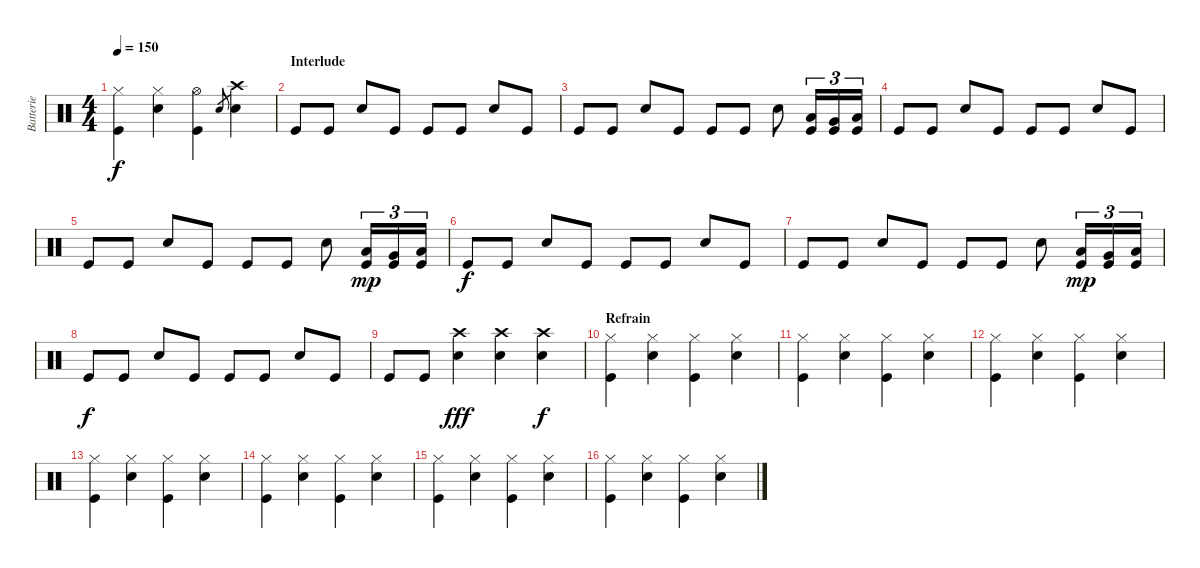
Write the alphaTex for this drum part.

\track ("Batterie" "Batterie") {instrument percussion}
\staff {score}
\articulation defaults
\ts (4 4)
\tempo 150
\clef neutral
\ks c
("Hi-Hat (closed)" "Kick (hit)").4{dy f} ("Hi-Hat (closed)" "Electric Snare (hit)").4 ("Hi-Hat (open)" "Kick (hit)").4 "Electric Snare (hit)".8{gr} ("Crash high (hit)" "Electric Snare (hit)").4 |
\section ("" "Interlude")
"Kick (hit)".8 "Kick (hit)".8 "Electric Snare (hit)".8 "Kick (hit)".8 "Kick (hit)".8 "Kick (hit)".8 "Electric Snare (hit)".8 "Kick (hit)".8 |
"Kick (hit)".8 "Kick (hit)".8 "Electric Snare (hit)".8 "Kick (hit)".8 "Kick (hit)".8 "Kick (hit)".8 "Electric Snare (hit)".8 ("Low Tom (hit)" "Kick (hit)").16{tu (3 2)} ("Very Low Tom (hit)" "Kick (hit)").16{tu (3 2)} ("Low Floor Tom (hit)" "Kick (hit)").16{tu (3 2)} |
"Kick (hit)".8 "Kick (hit)".8 "Electric Snare (hit)".8 "Kick (hit)".8 "Kick (hit)".8 "Kick (hit)".8 "Electric Snare (hit)".8 "Kick (hit)".8 |
"Kick (hit)".8 "Kick (hit)".8 "Electric Snare (hit)".8 "Kick (hit)".8 "Kick (hit)".8 "Kick (hit)".8 "Electric Snare (hit)".8 ("Low Tom (hit)" "Kick (hit)").16{tu (3 2) dy mp} ("Very Low Tom (hit)" "Kick (hit)").16{tu (3 2)} ("Low Floor Tom (hit)" "Kick (hit)").16{tu (3 2)} |
"Kick (hit)".8{dy f} "Kick (hit)".8 "Electric Snare (hit)".8 "Kick (hit)".8 "Kick (hit)".8 "Kick (hit)".8 "Electric Snare (hit)".8 "Kick (hit)".8 |
"Kick (hit)".8 "Kick (hit)".8 "Electric Snare (hit)".8 "Kick (hit)".8 "Kick (hit)".8 "Kick (hit)".8 "Electric Snare (hit)".8 ("Low Tom (hit)" "Kick (hit)").16{tu (3 2) dy mp} ("Very Low Tom (hit)" "Kick (hit)").16{tu (3 2)} ("Low Floor Tom (hit)" "Kick (hit)").16{tu (3 2)} |
"Kick (hit)".8{dy f} "Kick (hit)".8 "Electric Snare (hit)".8 "Kick (hit)".8 "Kick (hit)".8 "Kick (hit)".8 "Electric Snare (hit)".8 "Kick (hit)".8 |
"Kick (hit)".8 "Kick (hit)".8 ("Crash high (hit)" "Electric Snare (hit)").4{dy fff} ("Crash high (hit)" "Electric Snare (hit)").4 ("Crash high (hit)" "Electric Snare (hit)").4{dy f} |
\section ("" "Refrain")
("Hi-Hat (closed)" "Kick (hit)").4 ("Hi-Hat (closed)" "Electric Snare (hit)").4 ("Hi-Hat (closed)" "Kick (hit)").4 ("Hi-Hat (closed)" "Electric Snare (hit)").4 |
("Hi-Hat (closed)" "Kick (hit)").4 ("Hi-Hat (closed)" "Electric Snare (hit)").4 ("Hi-Hat (closed)" "Kick (hit)").4 ("Hi-Hat (closed)" "Electric Snare (hit)").4 |
("Hi-Hat (closed)" "Kick (hit)").4 ("Hi-Hat (closed)" "Electric Snare (hit)").4 ("Hi-Hat (closed)" "Kick (hit)").4 ("Hi-Hat (closed)" "Electric Snare (hit)").4 |
("Hi-Hat (closed)" "Kick (hit)").4 ("Hi-Hat (closed)" "Electric Snare (hit)").4 ("Hi-Hat (closed)" "Kick (hit)").4 ("Hi-Hat (closed)" "Electric Snare (hit)").4 |
("Hi-Hat (closed)" "Kick (hit)").4 ("Hi-Hat (closed)" "Electric Snare (hit)").4 ("Hi-Hat (closed)" "Kick (hit)").4 ("Hi-Hat (closed)" "Electric Snare (hit)").4 |
("Hi-Hat (closed)" "Kick (hit)").4 ("Hi-Hat (closed)" "Electric Snare (hit)").4 ("Hi-Hat (closed)" "Kick (hit)").4 ("Hi-Hat (closed)" "Electric Snare (hit)").4 |
("Hi-Hat (closed)" "Kick (hit)").4 ("Hi-Hat (closed)" "Electric Snare (hit)").4 ("Hi-Hat (closed)" "Kick (hit)").4 ("Hi-Hat (closed)" "Electric Snare (hit)").4
